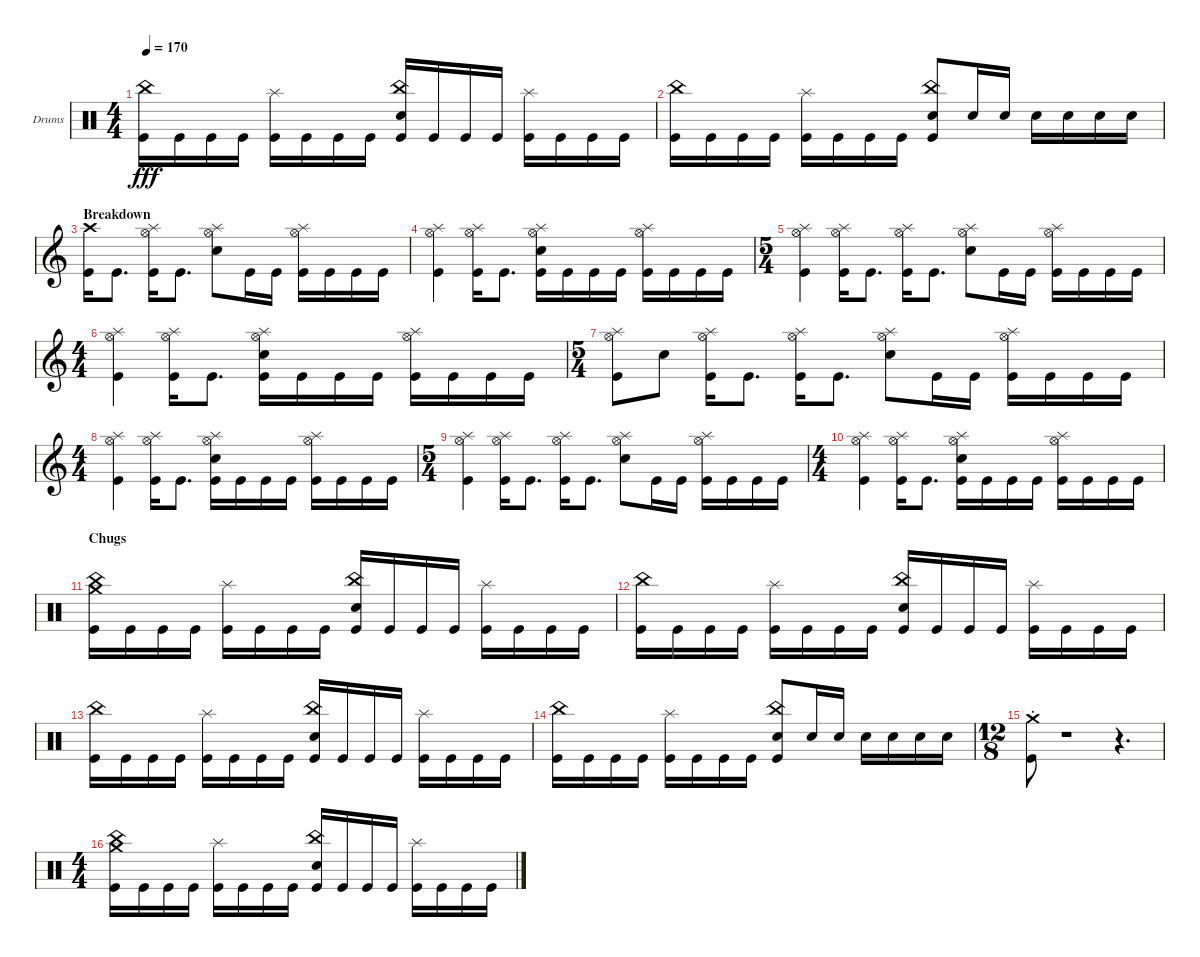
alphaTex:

\defaultSystemsLayout 4
\bracketExtendMode groupsimilarinstruments
\firstSystemTrackNameOrientation horizontal
\otherSystemsTrackNameOrientation horizontal
\track ("Chris Adler" "Drums") {instrument percussion}
\staff {score}
\articulation defaults
\ts (4 4)
\tempo 170
\clef neutral
\ks c
("Kick (hit)" "China (hit)").16{dy fff} "Kick (hit)".16 "Kick (hit)".16 "Kick (hit)".16 ("Kick (hit)" "Splash (hit)").16 "Kick (hit)".16 "Kick (hit)".16 "Kick (hit)".16 ("Kick (hit)" "Snare (hit) 2" "China (hit)").16 "Kick (hit)".16 "Kick (hit)".16 "Kick (hit)".16 ("Kick (hit)" "Splash (hit)").16 "Kick (hit)".16 "Kick (hit)".16 "Kick (hit)".16 |
("Kick (hit)" "China (hit)").16 "Kick (hit)".16 "Kick (hit)".16 "Kick (hit)".16 ("Kick (hit)" "Splash (hit)").16 "Kick (hit)".16 "Kick (hit)".16 "Kick (hit)".16 ("Kick (hit)" "Snare (hit) 2" "China (hit)").8 "Snare (hit) 2".16 "Snare (hit) 2".16 "Snare (hit) 2".16 "Snare (hit) 2".16 "Snare (hit) 2".16 "Snare (hit) 2".16 |
\section ("" "Breakdown")
\clef g2
("Kick (hit)" "Crash high (hit)").16 "Kick (hit)".8{d} ("Kick (hit)" "Hi-Hat (open)" "Splash (hit)").16 "Kick (hit)".8{d} ("Snare (hit) 2" "Hi-Hat (open)" "Splash (hit)").8 "Kick (hit)".16 "Kick (hit)".16 ("Kick (hit)" "Hi-Hat (open)" "Splash (hit)").16 "Kick (hit)".16 "Kick (hit)".16 "Kick (hit)".16 |
("Kick (hit)" "Hi-Hat (open)" "Splash (hit)").4 ("Kick (hit)" "Hi-Hat (open)" "Splash (hit)").16 "Kick (hit)".8{d} ("Kick (hit)" "Snare (hit) 2" "Hi-Hat (open)" "Splash (hit)").16 "Kick (hit)".16 "Kick (hit)".16 "Kick (hit)".16 ("Kick (hit)" "Hi-Hat (open)" "Splash (hit)").16 "Kick (hit)".16 "Kick (hit)".16 "Kick (hit)".16 |
\ts (5 4)
("Kick (hit)" "Hi-Hat (open)" "Splash (hit)").4 ("Kick (hit)" "Hi-Hat (open)" "Splash (hit)").16 "Kick (hit)".8{d} ("Kick (hit)" "Hi-Hat (open)" "Splash (hit)").16 "Kick (hit)".8{d} ("Snare (hit) 2" "Hi-Hat (open)" "Splash (hit)").8 "Kick (hit)".16 "Kick (hit)".16 ("Kick (hit)" "Hi-Hat (open)" "Splash (hit)").16 "Kick (hit)".16 "Kick (hit)".16 "Kick (hit)".16 |
\ts (4 4)
("Kick (hit)" "Hi-Hat (open)" "Splash (hit)").4 ("Kick (hit)" "Hi-Hat (open)" "Splash (hit)").16 "Kick (hit)".8{d} ("Kick (hit)" "Snare (hit) 2" "Hi-Hat (open)" "Splash (hit)").16 "Kick (hit)".16 "Kick (hit)".16 "Kick (hit)".16 ("Kick (hit)" "Hi-Hat (open)" "Splash (hit)").16 "Kick (hit)".16 "Kick (hit)".16 "Kick (hit)".16 |
\ts (5 4)
("Kick (hit)" "Hi-Hat (open)" "Splash (hit)").8 "Snare (hit) 2".8 ("Kick (hit)" "Hi-Hat (open)" "Splash (hit)").16 "Kick (hit)".8{d} ("Kick (hit)" "Hi-Hat (open)" "Splash (hit)").16 "Kick (hit)".8{d} ("Hi-Hat (open)" "Snare (hit) 2" "Splash (hit)").8 "Kick (hit)".16 "Kick (hit)".16 ("Kick (hit)" "Hi-Hat (open)" "Splash (hit)").16 "Kick (hit)".16 "Kick (hit)".16 "Kick (hit)".16 |
\ts (4 4)
("Kick (hit)" "Hi-Hat (open)" "Splash (hit)").4 ("Kick (hit)" "Hi-Hat (open)" "Splash (hit)").16 "Kick (hit)".8{d} ("Kick (hit)" "Snare (hit) 2" "Hi-Hat (open)" "Splash (hit)").16 "Kick (hit)".16 "Kick (hit)".16 "Kick (hit)".16 ("Kick (hit)" "Hi-Hat (open)" "Splash (hit)").16 "Kick (hit)".16 "Kick (hit)".16 "Kick (hit)".16 |
\ts (5 4)
("Kick (hit)" "Hi-Hat (open)" "Splash (hit)").4 ("Kick (hit)" "Hi-Hat (open)" "Splash (hit)").16 "Kick (hit)".8{d} ("Kick (hit)" "Hi-Hat (open)" "Splash (hit)").16 "Kick (hit)".8{d} ("Snare (hit) 2" "Hi-Hat (open)" "Splash (hit)").8 "Kick (hit)".16 "Kick (hit)".16 ("Kick (hit)" "Hi-Hat (open)" "Splash (hit)").16 "Kick (hit)".16 "Kick (hit)".16 "Kick (hit)".16 |
\ts (4 4)
("Kick (hit)" "Hi-Hat (open)" "Splash (hit)").4 ("Kick (hit)" "Hi-Hat (open)" "Splash (hit)").16 "Kick (hit)".8{d} ("Kick (hit)" "Snare (hit) 2" "Hi-Hat (open)" "Splash (hit)").16 "Kick (hit)".16 "Kick (hit)".16 "Kick (hit)".16 ("Kick (hit)" "Hi-Hat (open)" "Splash (hit)").16 "Kick (hit)".16 "Kick (hit)".16 "Kick (hit)".16 |
\section ("" "Chugs")
\clef neutral
("Kick (hit)" "China (hit)" "Crash medium (hit)").16 "Kick (hit)".16 "Kick (hit)".16 "Kick (hit)".16 ("Kick (hit)" "Splash (hit)").16 "Kick (hit)".16 "Kick (hit)".16 "Kick (hit)".16 ("Kick (hit)" "Snare (hit) 2" "China (hit)").16 "Kick (hit)".16 "Kick (hit)".16 "Kick (hit)".16 ("Kick (hit)" "Splash (hit)").16 "Kick (hit)".16 "Kick (hit)".16 "Kick (hit)".16 |
("Kick (hit)" "China (hit)").16 "Kick (hit)".16 "Kick (hit)".16 "Kick (hit)".16 ("Kick (hit)" "Splash (hit)").16 "Kick (hit)".16 "Kick (hit)".16 "Kick (hit)".16 ("Kick (hit)" "Snare (hit) 2" "China (hit)").16 "Kick (hit)".16 "Kick (hit)".16 "Kick (hit)".16 ("Kick (hit)" "Splash (hit)").16 "Kick (hit)".16 "Kick (hit)".16 "Kick (hit)".16 |
("Kick (hit)" "China (hit)").16 "Kick (hit)".16 "Kick (hit)".16 "Kick (hit)".16 ("Kick (hit)" "Splash (hit)").16 "Kick (hit)".16 "Kick (hit)".16 "Kick (hit)".16 ("Kick (hit)" "Snare (hit) 2" "China (hit)").16 "Kick (hit)".16 "Kick (hit)".16 "Kick (hit)".16 ("Kick (hit)" "Splash (hit)").16 "Kick (hit)".16 "Kick (hit)".16 "Kick (hit)".16 |
("Kick (hit)" "China (hit)").16 "Kick (hit)".16 "Kick (hit)".16 "Kick (hit)".16 ("Kick (hit)" "Splash (hit)").16 "Kick (hit)".16 "Kick (hit)".16 "Kick (hit)".16 ("Kick (hit)" "Snare (hit) 2" "China (hit)").8 "Snare (hit) 2".16 "Snare (hit) 2".16 "Snare (hit) 2".16 "Snare (hit) 2".16 "Snare (hit) 2".16 "Snare (hit) 2".16 |
\ts (12 8)
("Kick (hit)"{st} "Crash medium (hit)"{st}).8 r.1 r.4{d} |
\ts (4 4)
("Kick (hit)" "China (hit)" "Crash medium (hit)").16 "Kick (hit)".16 "Kick (hit)".16 "Kick (hit)".16 ("Kick (hit)" "Splash (hit)").16 "Kick (hit)".16 "Kick (hit)".16 "Kick (hit)".16 ("Kick (hit)" "Snare (hit) 2" "China (hit)").16 "Kick (hit)".16 "Kick (hit)".16 "Kick (hit)".16 ("Kick (hit)" "Splash (hit)").16 "Kick (hit)".16 "Kick (hit)".16 "Kick (hit)".16
